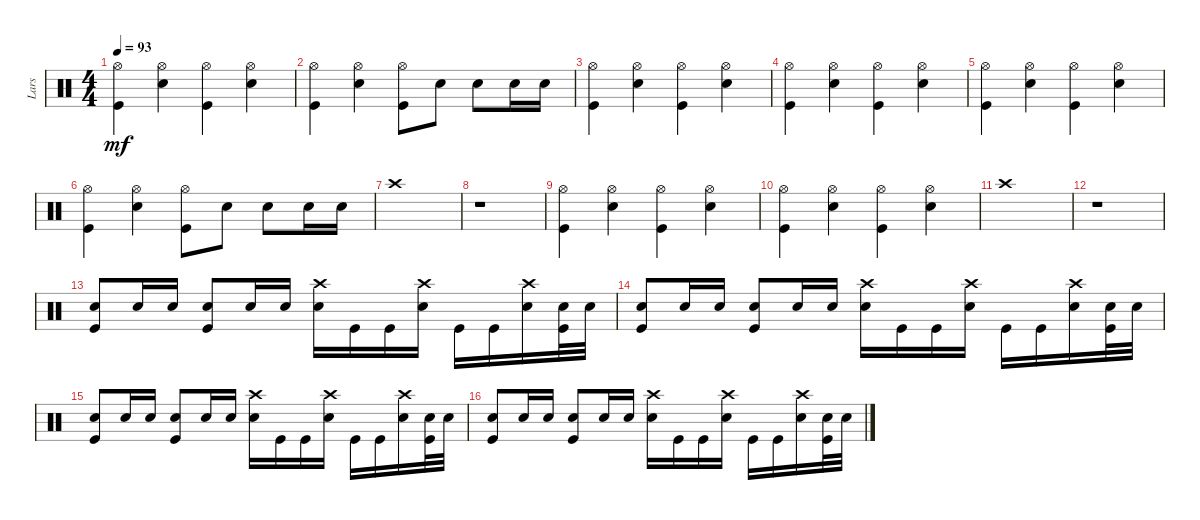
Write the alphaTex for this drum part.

\track ("Lars" "Lars") {instrument percussion}
\staff {score}
\articulation defaults
\ts (4 4)
\tempo 93
\clef neutral
\ks c
("Hi-Hat (open)" "Kick (hit)").4{dy mf} ("Hi-Hat (open)" "Snare (hit) 2").4 ("Hi-Hat (open)" "Kick (hit)").4 ("Hi-Hat (open)" "Snare (hit) 2").4 |
("Hi-Hat (open)" "Kick (hit)").4 ("Hi-Hat (open)" "Snare (hit) 2").4 ("Hi-Hat (open)" "Kick (hit)").8 "Snare (hit) 2".8 "Snare (hit) 2".8 "Snare (hit) 2".16 "Snare (hit) 2".16 |
("Hi-Hat (open)" "Kick (hit)").4 ("Hi-Hat (open)" "Snare (hit) 2").4 ("Hi-Hat (open)" "Kick (hit)").4 ("Hi-Hat (open)" "Snare (hit) 2").4 |
("Hi-Hat (open)" "Kick (hit)").4 ("Hi-Hat (open)" "Snare (hit) 2").4 ("Hi-Hat (open)" "Kick (hit)").4 ("Hi-Hat (open)" "Snare (hit) 2").4 |
("Hi-Hat (open)" "Kick (hit)").4 ("Hi-Hat (open)" "Snare (hit) 2").4 ("Hi-Hat (open)" "Kick (hit)").4 ("Hi-Hat (open)" "Snare (hit) 2").4 |
("Hi-Hat (open)" "Kick (hit)").4 ("Hi-Hat (open)" "Snare (hit) 2").4 ("Hi-Hat (open)" "Kick (hit)").8 "Snare (hit) 2".8 "Snare (hit) 2".8 "Snare (hit) 2".16 "Snare (hit) 2".16 |
"Crash high (hit)".1 |
r.1 |
("Hi-Hat (open)" "Kick (hit)").4 ("Hi-Hat (open)" "Snare (hit) 2").4 ("Hi-Hat (open)" "Kick (hit)").4 ("Hi-Hat (open)" "Snare (hit) 2").4 |
("Hi-Hat (open)" "Kick (hit)").4 ("Hi-Hat (open)" "Snare (hit) 2").4 ("Hi-Hat (open)" "Kick (hit)").4 ("Hi-Hat (open)" "Snare (hit) 2").4 |
"Crash high (hit)".1 |
r.1 |
("Snare (hit) 2" "Kick (hit)").8 "Snare (hit) 2".16 "Snare (hit) 2".16 ("Snare (hit) 2" "Kick (hit)").8 "Snare (hit) 2".16 "Snare (hit) 2".16 ("Crash high (hit)" "Snare (hit) 2").16 "Kick (hit)".16 "Kick (hit)".16 ("Crash high (hit)" "Snare (hit) 2").16 "Kick (hit)".16 "Kick (hit)".16 ("Crash high (hit)" "Snare (hit) 2").16 ("Snare (hit) 2" "Kick (hit)").32 "Snare (hit) 2".32 |
("Snare (hit) 2" "Kick (hit)").8 "Snare (hit) 2".16 "Snare (hit) 2".16 ("Snare (hit) 2" "Kick (hit)").8 "Snare (hit) 2".16 "Snare (hit) 2".16 ("Crash high (hit)" "Snare (hit) 2").16 "Kick (hit)".16 "Kick (hit)".16 ("Crash high (hit)" "Snare (hit) 2").16 "Kick (hit)".16 "Kick (hit)".16 ("Crash high (hit)" "Snare (hit) 2").16 ("Snare (hit) 2" "Kick (hit)").32 "Snare (hit) 2".32 |
("Snare (hit) 2" "Kick (hit)").8 "Snare (hit) 2".16 "Snare (hit) 2".16 ("Snare (hit) 2" "Kick (hit)").8 "Snare (hit) 2".16 "Snare (hit) 2".16 ("Crash high (hit)" "Snare (hit) 2").16 "Kick (hit)".16 "Kick (hit)".16 ("Crash high (hit)" "Snare (hit) 2").16 "Kick (hit)".16 "Kick (hit)".16 ("Crash high (hit)" "Snare (hit) 2").16 ("Snare (hit) 2" "Kick (hit)").32 "Snare (hit) 2".32 |
("Snare (hit) 2" "Kick (hit)").8 "Snare (hit) 2".16 "Snare (hit) 2".16 ("Snare (hit) 2" "Kick (hit)").8 "Snare (hit) 2".16 "Snare (hit) 2".16 ("Crash high (hit)" "Snare (hit) 2").16 "Kick (hit)".16 "Kick (hit)".16 ("Crash high (hit)" "Snare (hit) 2").16 "Kick (hit)".16 "Kick (hit)".16 ("Crash high (hit)" "Snare (hit) 2").16 ("Snare (hit) 2" "Kick (hit)").32 "Snare (hit) 2".32
